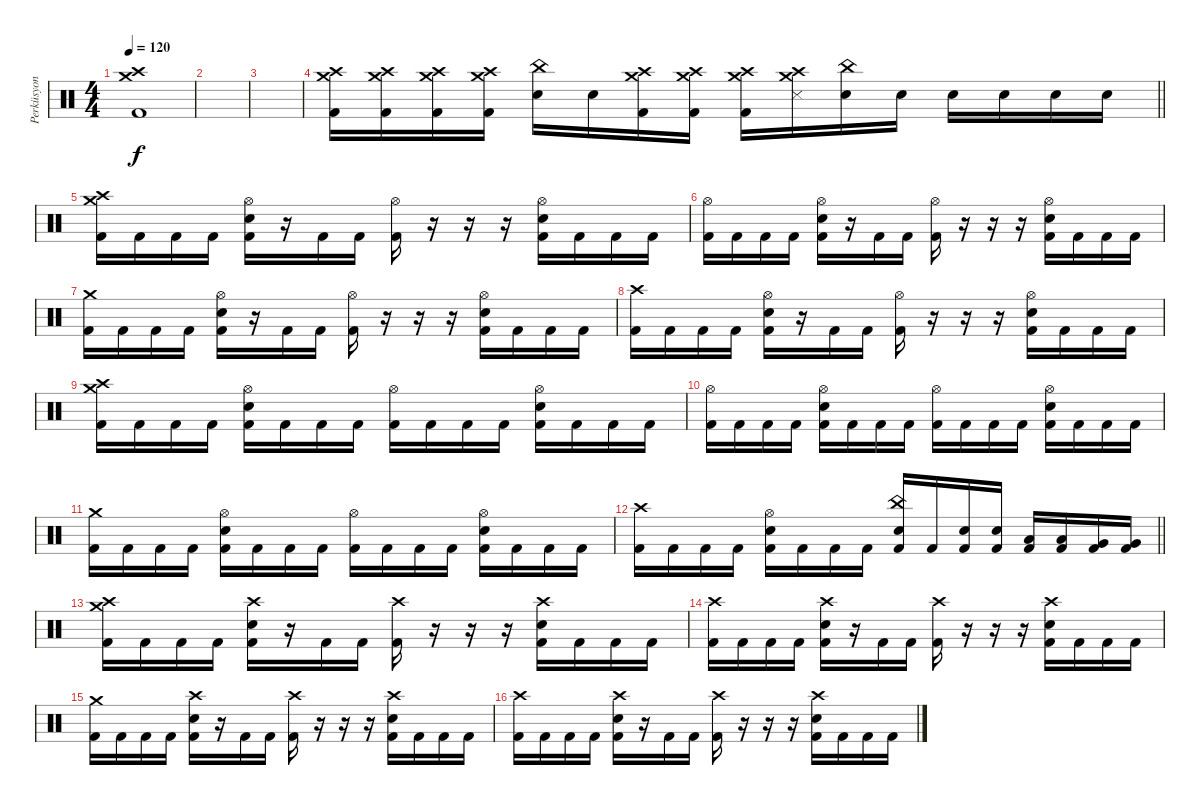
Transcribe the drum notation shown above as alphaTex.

\track ("Perküsyon" "Perküsyon") {instrument percussion}
\staff {score}
\articulation defaults
\ts (4 4)
\tempo 120
\clef neutral
\ks c
("Crash high (hit)" "Crash medium (hit)" "Kick (hit) 2").1{dy f} |
|
|
\barLineRight lightlight
("Crash medium (hit)" "Crash high (hit)" "Kick (hit) 2").16 ("Crash medium (hit)" "Crash high (hit)" "Kick (hit) 2").16 ("Crash medium (hit)" "Crash high (hit)" "Kick (hit) 2").16 ("Crash medium (hit)" "Crash high (hit)" "Kick (hit) 2").16 ("China (hit)" "Snare (hit) 2").16 "Snare (hit) 2".16 ("Crash medium (hit)" "Crash high (hit)" "Kick (hit) 2").16 ("Crash medium (hit)" "Crash high (hit)" "Kick (hit) 2").16 ("Crash medium (hit)" "Crash high (hit)" "Kick (hit) 2").16 ("Crash medium (hit)" "Crash high (hit)" "Snare (side stick) 3").16 ("China (hit)" "Snare (hit) 2").16 "Snare (hit) 2".16 "Snare (hit) 2".16 "Snare (hit) 2".16 "Snare (hit) 2".16 "Snare (hit) 2".16 |
\section ("" "")
("Crash high (hit)" "Crash medium (hit)" "Kick (hit) 2").16 "Kick (hit) 2".16 "Kick (hit) 2".16 "Kick (hit) 2".16 ("Snare (hit) 2" "Hi-Hat (open)" "Kick (hit) 2").16 r.16 "Kick (hit) 2".16 "Kick (hit) 2".16 ("Hi-Hat (open)" "Kick (hit) 2").16 r.16 r.16 r.16 ("Snare (hit) 2" "Hi-Hat (open)" "Kick (hit) 2").16 "Kick (hit) 2".16 "Kick (hit) 2".16 "Kick (hit) 2".16 |
("Hi-Hat (open)" "Kick (hit) 2").16 "Kick (hit) 2".16 "Kick (hit) 2".16 "Kick (hit) 2".16 ("Snare (hit) 2" "Hi-Hat (open)" "Kick (hit) 2").16 r.16 "Kick (hit) 2".16 "Kick (hit) 2".16 ("Hi-Hat (open)" "Kick (hit) 2").16 r.16 r.16 r.16 ("Snare (hit) 2" "Hi-Hat (open)" "Kick (hit) 2").16 "Kick (hit) 2".16 "Kick (hit) 2".16 "Kick (hit) 2".16 |
("Crash medium (hit)" "Kick (hit) 2").16 "Kick (hit) 2".16 "Kick (hit) 2".16 "Kick (hit) 2".16 ("Snare (hit) 2" "Hi-Hat (open)" "Kick (hit) 2").16 r.16 "Kick (hit) 2".16 "Kick (hit) 2".16 ("Hi-Hat (open)" "Kick (hit) 2").16 r.16 r.16 r.16 ("Snare (hit) 2" "Hi-Hat (open)" "Kick (hit) 2").16 "Kick (hit) 2".16 "Kick (hit) 2".16 "Kick (hit) 2".16 |
("Crash high (hit)" "Kick (hit) 2").16 "Kick (hit) 2".16 "Kick (hit) 2".16 "Kick (hit) 2".16 ("Snare (hit) 2" "Hi-Hat (open)" "Kick (hit) 2").16 r.16 "Kick (hit) 2".16 "Kick (hit) 2".16 ("Hi-Hat (open)" "Kick (hit) 2").16 r.16 r.16 r.16 ("Snare (hit) 2" "Hi-Hat (open)" "Kick (hit) 2").16 "Kick (hit) 2".16 "Kick (hit) 2".16 "Kick (hit) 2".16 |
("Crash medium (hit)" "Crash high (hit)" "Kick (hit) 2").16 "Kick (hit) 2".16 "Kick (hit) 2".16 "Kick (hit) 2".16 ("Snare (hit) 2" "Hi-Hat (open)" "Kick (hit) 2").16 "Kick (hit) 2".16 "Kick (hit) 2".16 "Kick (hit) 2".16 ("Hi-Hat (open)" "Kick (hit) 2").16 "Kick (hit) 2".16 "Kick (hit) 2".16 "Kick (hit) 2".16 ("Snare (hit) 2" "Hi-Hat (open)" "Kick (hit) 2").16 "Kick (hit) 2".16 "Kick (hit) 2".16 "Kick (hit) 2".16 |
("Hi-Hat (open)" "Kick (hit) 2").16 "Kick (hit) 2".16 "Kick (hit) 2".16 "Kick (hit) 2".16 ("Snare (hit) 2" "Hi-Hat (open)" "Kick (hit) 2").16 "Kick (hit) 2".16 "Kick (hit) 2".16 "Kick (hit) 2".16 ("Hi-Hat (open)" "Kick (hit) 2").16 "Kick (hit) 2".16 "Kick (hit) 2".16 "Kick (hit) 2".16 ("Snare (hit) 2" "Hi-Hat (open)" "Kick (hit) 2").16 "Kick (hit) 2".16 "Kick (hit) 2".16 "Kick (hit) 2".16 |
("Crash medium (hit)" "Kick (hit) 2").16 "Kick (hit) 2".16 "Kick (hit) 2".16 "Kick (hit) 2".16 ("Snare (hit) 2" "Hi-Hat (open)" "Kick (hit) 2").16 "Kick (hit) 2".16 "Kick (hit) 2".16 "Kick (hit) 2".16 ("Hi-Hat (open)" "Kick (hit) 2").16 "Kick (hit) 2".16 "Kick (hit) 2".16 "Kick (hit) 2".16 ("Snare (hit) 2" "Hi-Hat (open)" "Kick (hit) 2").16 "Kick (hit) 2".16 "Kick (hit) 2".16 "Kick (hit) 2".16 |
\barLineRight lightlight
("Crash high (hit)" "Kick (hit) 2").16 "Kick (hit) 2".16 "Kick (hit) 2".16 "Kick (hit) 2".16 ("Snare (hit) 2" "Hi-Hat (open)" "Kick (hit) 2").16 "Kick (hit) 2".16 "Kick (hit) 2".16 "Kick (hit) 2".16 ("Snare (hit) 2" "China (hit)" "Kick (hit) 2").16 "Kick (hit) 2".16 ("Snare (hit) 2" "Kick (hit) 2").16 ("Snare (hit) 2" "Kick (hit) 2").16 ("Low Tom (hit)" "Kick (hit) 2").16 ("Low Tom (hit)" "Kick (hit) 2").16 ("Very Low Tom (hit)" "Kick (hit) 2").16 ("Very Low Tom (hit)" "Kick (hit) 2").16 |
("Crash high (hit)" "Crash medium (hit)" "Kick (hit) 2").16 "Kick (hit) 2".16 "Kick (hit) 2".16 "Kick (hit) 2".16 ("Crash high (hit)" "Snare (hit) 2" "Kick (hit) 2").16 r.16 "Kick (hit) 2".16 "Kick (hit) 2".16 ("Crash high (hit)" "Kick (hit) 2").16 r.16 r.16 r.16 ("Snare (hit) 2" "Crash high (hit)" "Kick (hit) 2").16 "Kick (hit) 2".16 "Kick (hit) 2".16 "Kick (hit) 2".16 |
("Crash high (hit)" "Kick (hit) 2").16 "Kick (hit) 2".16 "Kick (hit) 2".16 "Kick (hit) 2".16 ("Snare (hit) 2" "Crash high (hit)" "Kick (hit) 2").16 r.16 "Kick (hit) 2".16 "Kick (hit) 2".16 ("Crash high (hit)" "Kick (hit) 2").16 r.16 r.16 r.16 ("Snare (hit) 2" "Crash high (hit)" "Kick (hit) 2").16 "Kick (hit) 2".16 "Kick (hit) 2".16 "Kick (hit) 2".16 |
("Crash medium (hit)" "Kick (hit) 2").16 "Kick (hit) 2".16 "Kick (hit) 2".16 "Kick (hit) 2".16 ("Snare (hit) 2" "Crash high (hit)" "Kick (hit) 2").16 r.16 "Kick (hit) 2".16 "Kick (hit) 2".16 ("Crash high (hit)" "Kick (hit) 2").16 r.16 r.16 r.16 ("Snare (hit) 2" "Crash high (hit)" "Kick (hit) 2").16 "Kick (hit) 2".16 "Kick (hit) 2".16 "Kick (hit) 2".16 |
("Crash high (hit)" "Kick (hit) 2").16 "Kick (hit) 2".16 "Kick (hit) 2".16 "Kick (hit) 2".16 ("Snare (hit) 2" "Crash high (hit)" "Kick (hit) 2").16 r.16 "Kick (hit) 2".16 "Kick (hit) 2".16 ("Crash high (hit)" "Kick (hit) 2").16 r.16 r.16 r.16 ("Snare (hit) 2" "Crash high (hit)" "Kick (hit) 2").16 "Kick (hit) 2".16 "Kick (hit) 2".16 "Kick (hit) 2".16
